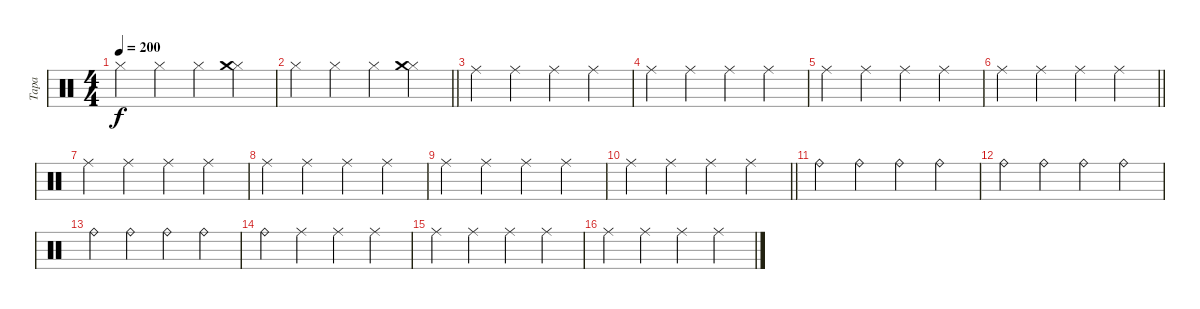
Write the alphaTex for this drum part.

\track ("Tapa" "Tapa") {instrument percussion}
\staff {score}
\articulation defaults
\ts (4 4)
\tempo 200
\clef neutral
\ks c "Hi-Hat (closed)".4{dy f} "Hi-Hat (closed)".4 "Hi-Hat (closed)".4
("Hi-Hat (closed)" "Crash medium (hit)").4 |
\barLineRight lightlight "Hi-Hat (closed)".4 "Hi-Hat (closed)".4 "Hi-Hat (closed)".4
("Hi-Hat (closed)" "Crash medium (hit)").4 |
"Ride (middle)".4 "Ride (middle)".4 "Ride (middle)".4 "Ride (middle)".4 |
"Ride (middle)".4 "Ride (middle)".4 "Ride (middle)".4 "Ride (middle)".4 |
"Ride (middle)".4 "Ride (middle)".4 "Ride (middle)".4 "Ride (middle)".4 |
\barLineRight lightlight "Ride (middle)".4 "Ride (middle)".4 "Ride (middle)".4 "Ride (middle)".4
|
"Ride (middle)".4 "Ride (middle)".4 "Ride (middle)".4 "Ride (middle)".4 |
"Ride (middle)".4 "Ride (middle)".4 "Ride (middle)".4 "Ride (middle)".4 |
"Ride (middle)".4 "Ride (middle)".4 "Ride (middle)".4 "Ride (middle)".4 |
\barLineRight lightlight "Ride (middle)".4 "Ride (middle)".4 "Ride (middle)".4 "Ride (middle)".4
|
"Ride (bell)".4 "Ride (bell)".4 "Ride (bell)".4 "Ride (bell)".4 |
"Ride (bell)".4 "Ride (bell)".4 "Ride (bell)".4 "Ride (bell)".4 |
"Ride (bell)".4 "Ride (bell)".4 "Ride (bell)".4 "Ride (bell)".4 |
"Ride (bell)".4 "Ride (middle)".4 "Ride (middle)".4 "Ride (middle)".4 |
"Ride (middle)".4 "Ride (middle)".4 "Ride (middle)".4 "Ride (middle)".4 |
"Ride (middle)".4 "Ride (middle)".4 "Ride (middle)".4 "Ride (middle)".4
